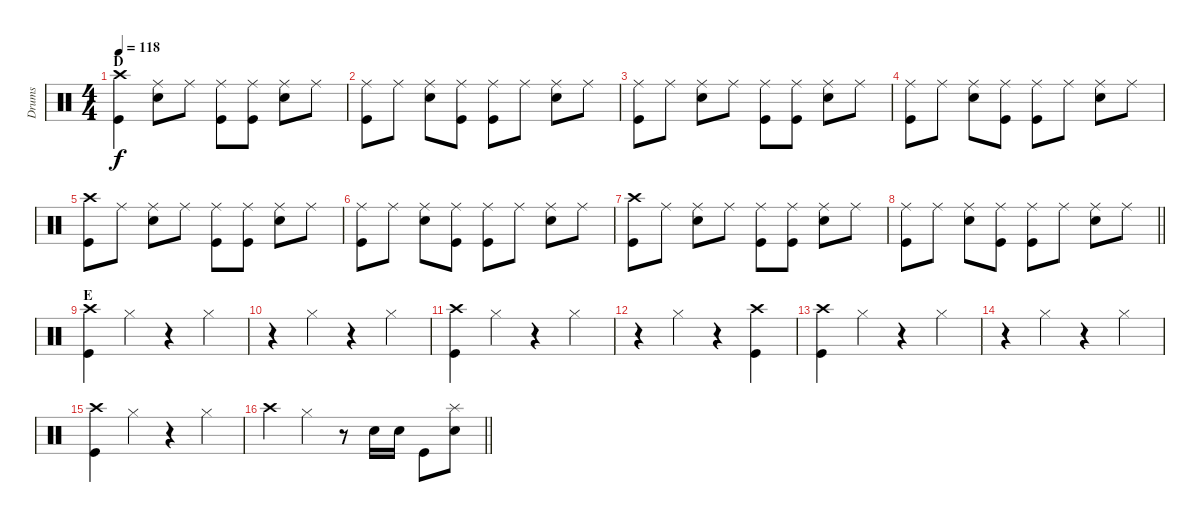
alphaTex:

\track ("Drums" "Drums") {instrument percussion}
\staff {score}
\articulation defaults
\ts (4 4)
\section ("" "D")
\tempo 118
\clef neutral
\ks c
("Crash high (hit)" "Kick (hit)").4{dy f} ("Ride (middle)" "Electric Snare (hit)").8 "Ride (middle)".8 ("Ride (middle)" "Kick (hit)").8 ("Ride (middle)" "Kick (hit)").8 ("Ride (middle)" "Electric Snare (hit)").8 "Ride (middle)".8 |
("Ride (middle)" "Kick (hit)").8 "Ride (middle)".8 ("Ride (middle)" "Electric Snare (hit)").8 ("Ride (middle)" "Kick (hit)").8 ("Ride (middle)" "Kick (hit)").8 "Ride (middle)".8 ("Ride (middle)" "Electric Snare (hit)").8 "Ride (middle)".8 |
("Ride (middle)" "Kick (hit)").8 "Ride (middle)".8 ("Ride (middle)" "Electric Snare (hit)").8 "Ride (middle)".8 ("Ride (middle)" "Kick (hit)").8 ("Ride (middle)" "Kick (hit)").8 ("Ride (middle)" "Electric Snare (hit)").8 "Ride (middle)".8 |
("Ride (middle)" "Kick (hit)").8 "Ride (middle)".8 ("Ride (middle)" "Electric Snare (hit)").8 ("Ride (middle)" "Kick (hit)").8 ("Ride (middle)" "Kick (hit)").8 "Ride (middle)".8 ("Ride (middle)" "Electric Snare (hit)").8 "Ride (middle)".8 |
("Crash high (hit)" "Kick (hit)").8 "Ride (middle)".8 ("Ride (middle)" "Electric Snare (hit)").8 "Ride (middle)".8 ("Ride (middle)" "Kick (hit)").8 ("Ride (middle)" "Kick (hit)").8 ("Ride (middle)" "Electric Snare (hit)").8 "Ride (middle)".8 |
("Ride (middle)" "Kick (hit)").8 "Ride (middle)".8 ("Ride (middle)" "Electric Snare (hit)").8 ("Ride (middle)" "Kick (hit)").8 ("Ride (middle)" "Kick (hit)").8 "Ride (middle)".8 ("Ride (middle)" "Electric Snare (hit)").8 "Ride (middle)".8 |
("Crash high (hit)" "Kick (hit)").8 "Ride (middle)".8 ("Ride (middle)" "Electric Snare (hit)").8 "Ride (middle)".8 ("Ride (middle)" "Kick (hit)").8 ("Ride (middle)" "Kick (hit)").8 ("Ride (middle)" "Electric Snare (hit)").8 "Ride (middle)".8 |
\barLineRight lightlight
("Ride (middle)" "Kick (hit)").8 "Ride (middle)".8 ("Ride (middle)" "Electric Snare (hit)").8 ("Ride (middle)" "Kick (hit)").8 ("Ride (middle)" "Kick (hit)").8 "Ride (middle)".8 ("Ride (middle)" "Electric Snare (hit)").8 "Ride (middle)".8 |
\section ("" "E")
("Crash high (hit)" "Kick (hit)").4 "Hi-Hat (closed)".4 r.4 "Hi-Hat (closed)".4 |
r.4 "Hi-Hat (closed)".4 r.4 "Hi-Hat (closed)".4 |
("Crash high (hit)" "Kick (hit)").4 "Hi-Hat (closed)".4 r.4 "Hi-Hat (closed)".4 |
r.4 "Hi-Hat (closed)".4 r.4 ("Crash high (hit)" "Kick (hit)").4 |
("Crash high (hit)" "Kick (hit)").4 "Hi-Hat (closed)".4 r.4 "Hi-Hat (closed)".4 |
r.4 "Hi-Hat (closed)".4 r.4 "Hi-Hat (closed)".4 |
("Crash high (hit)" "Kick (hit)").4 "Hi-Hat (closed)".4 r.4 "Hi-Hat (closed)".4 |
\barLineRight lightlight "Crash high (hit)".4 "Hi-Hat (closed)".4
r.8 "Electric Snare (hit)".16 "Electric Snare (hit)".16 "Kick (hit)".8 ("Splash (hit)" "Electric Snare (hit)").8
